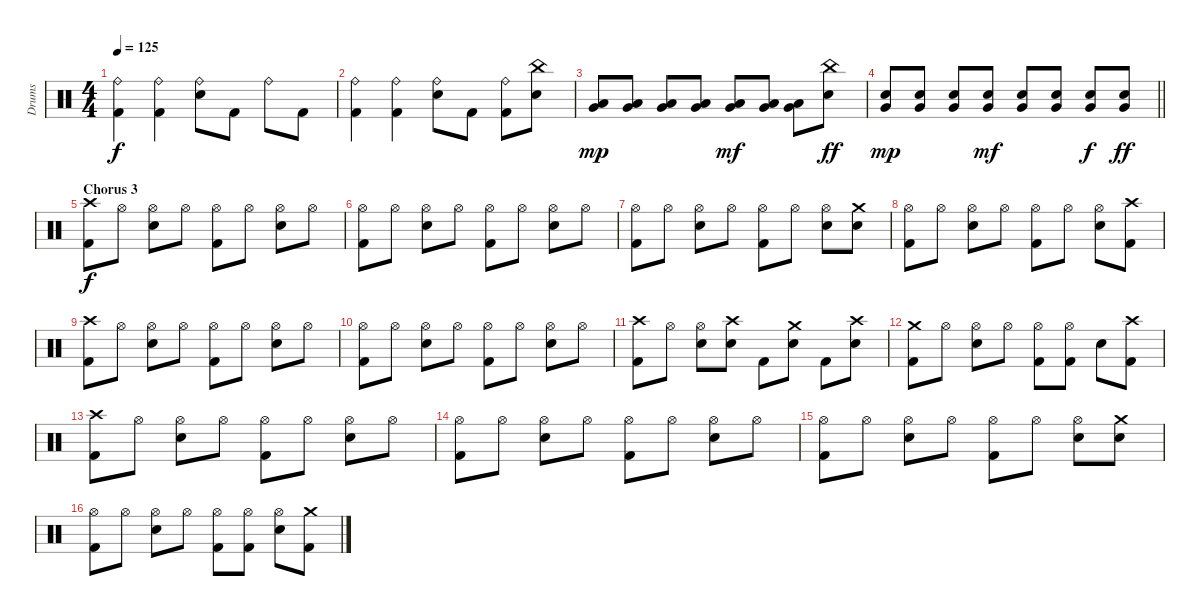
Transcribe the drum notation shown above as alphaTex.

\track ("Drums" "Drums") {instrument percussion}
\staff {score}
\articulation defaults
\ts (4 4)
\tempo 125
\clef neutral
\ks c
("Ride (bell)" "Kick (hit) 2").4{dy f} ("Ride (bell)" "Kick (hit) 2").4 ("Ride (bell)" "Electric Snare (hit)").8 "Kick (hit) 2".8 "Ride (bell)".8 "Kick (hit) 2".8 |
("Ride (bell)" "Kick (hit) 2").4 ("Ride (bell)" "Kick (hit) 2").4 ("Ride (bell)" "Electric Snare (hit)").8 "Kick (hit) 2".8 ("Ride (bell)" "Kick (hit) 2").8 ("China (hit)" "Electric Snare (hit)").8 |
("Very Low Tom (hit)" "Low Floor Tom (hit)").8{dy mp} ("Very Low Tom (hit)" "Low Floor Tom (hit)").8 ("Very Low Tom (hit)" "Low Floor Tom (hit)").8 ("Very Low Tom (hit)" "Low Floor Tom (hit)").8 ("Very Low Tom (hit)" "Low Floor Tom (hit)").8{dy mf} ("Very Low Tom (hit)" "Low Floor Tom (hit)").8 ("Very Low Tom (hit)" "Low Floor Tom (hit)").8 ("China (hit)" "Electric Snare (hit)").8{dy ff} |
\barLineRight lightlight
("Very Low Tom (hit)" "Electric Snare (hit)").8{dy mp} ("Very Low Tom (hit)" "Electric Snare (hit)").8 ("Very Low Tom (hit)" "Electric Snare (hit)").8 ("Very Low Tom (hit)" "Electric Snare (hit)").8{dy mf} ("Very Low Tom (hit)" "Electric Snare (hit)").8 ("Very Low Tom (hit)" "Electric Snare (hit)").8 ("Very Low Tom (hit)" "Electric Snare (hit)").8{dy f} ("Very Low Tom (hit)" "Electric Snare (hit)").8{dy ff} |
\section ("" "Chorus 3")
("Crash high (hit)" "Kick (hit) 2").8{dy f} "Hi-Hat (open)".8 ("Hi-Hat (open)" "Electric Snare (hit)").8 "Hi-Hat (open)".8 ("Hi-Hat (open)" "Kick (hit) 2").8 "Hi-Hat (open)".8 ("Hi-Hat (open)" "Electric Snare (hit)").8 "Hi-Hat (open)".8 |
("Hi-Hat (open)" "Kick (hit) 2").8 "Hi-Hat (open)".8 ("Hi-Hat (open)" "Electric Snare (hit)").8 "Hi-Hat (open)".8 ("Hi-Hat (open)" "Kick (hit) 2").8 "Hi-Hat (open)".8 ("Hi-Hat (open)" "Electric Snare (hit)").8 "Hi-Hat (open)".8 |
("Hi-Hat (open)" "Kick (hit) 2").8 "Hi-Hat (open)".8 ("Hi-Hat (open)" "Electric Snare (hit)").8 "Hi-Hat (open)".8 ("Hi-Hat (open)" "Kick (hit) 2").8 "Hi-Hat (open)".8 ("Hi-Hat (open)" "Electric Snare (hit)").8 ("Crash medium (hit)" "Electric Snare (hit)").8 |
("Hi-Hat (open)" "Kick (hit) 2").8 "Hi-Hat (open)".8 ("Hi-Hat (open)" "Electric Snare (hit)").8 "Hi-Hat (open)".8 ("Hi-Hat (open)" "Kick (hit) 2").8 "Hi-Hat (open)".8 ("Hi-Hat (open)" "Electric Snare (hit)").8 ("Crash high (hit)" "Kick (hit) 2").8 |
("Crash high (hit)" "Kick (hit) 2").8 "Hi-Hat (open)".8 ("Hi-Hat (open)" "Electric Snare (hit)").8 "Hi-Hat (open)".8 ("Hi-Hat (open)" "Kick (hit) 2").8 "Hi-Hat (open)".8 ("Hi-Hat (open)" "Electric Snare (hit)").8 "Hi-Hat (open)".8 |
("Hi-Hat (open)" "Kick (hit) 2").8 "Hi-Hat (open)".8 ("Hi-Hat (open)" "Electric Snare (hit)").8 "Hi-Hat (open)".8 ("Hi-Hat (open)" "Kick (hit) 2").8 "Hi-Hat (open)".8 ("Hi-Hat (open)" "Electric Snare (hit)").8 "Hi-Hat (open)".8 |
("Crash high (hit)" "Kick (hit) 2").8 "Hi-Hat (open)".8 ("Hi-Hat (open)" "Electric Snare (hit)").8 ("Crash high (hit)" "Electric Snare (hit)").8 "Kick (hit) 2".8 ("Crash medium (hit)" "Electric Snare (hit)").8 "Kick (hit) 2".8 ("Crash high (hit)" "Electric Snare (hit)").8 |
("Crash medium (hit)" "Kick (hit) 2").8 "Hi-Hat (open)".8 ("Hi-Hat (open)" "Electric Snare (hit)").8 "Hi-Hat (open)".8 ("Hi-Hat (open)" "Kick (hit) 2").8 ("Hi-Hat (open)" "Kick (hit) 2").8 "Electric Snare (hit)".8 ("Crash high (hit)" "Kick (hit) 2").8 |
("Crash high (hit)" "Kick (hit) 2").8 "Hi-Hat (open)".8 ("Hi-Hat (open)" "Electric Snare (hit)").8 "Hi-Hat (open)".8 ("Hi-Hat (open)" "Kick (hit) 2").8 "Hi-Hat (open)".8 ("Hi-Hat (open)" "Electric Snare (hit)").8 "Hi-Hat (open)".8 |
("Hi-Hat (open)" "Kick (hit) 2").8 "Hi-Hat (open)".8 ("Hi-Hat (open)" "Electric Snare (hit)").8 "Hi-Hat (open)".8 ("Hi-Hat (open)" "Kick (hit) 2").8 "Hi-Hat (open)".8 ("Hi-Hat (open)" "Electric Snare (hit)").8 "Hi-Hat (open)".8 |
("Hi-Hat (open)" "Kick (hit) 2").8 "Hi-Hat (open)".8 ("Hi-Hat (open)" "Electric Snare (hit)").8 "Hi-Hat (open)".8 ("Hi-Hat (open)" "Kick (hit) 2").8 "Hi-Hat (open)".8 ("Hi-Hat (open)" "Electric Snare (hit)").8 ("Crash medium (hit)" "Electric Snare (hit)").8 |
("Hi-Hat (open)" "Kick (hit) 2").8 "Hi-Hat (open)".8 ("Hi-Hat (open)" "Electric Snare (hit)").8 "Hi-Hat (open)".8 ("Hi-Hat (open)" "Kick (hit) 2").8 ("Hi-Hat (open)" "Kick (hit) 2").8 ("Hi-Hat (open)" "Electric Snare (hit)").8 ("Crash medium (hit)" "Kick (hit) 2").8
